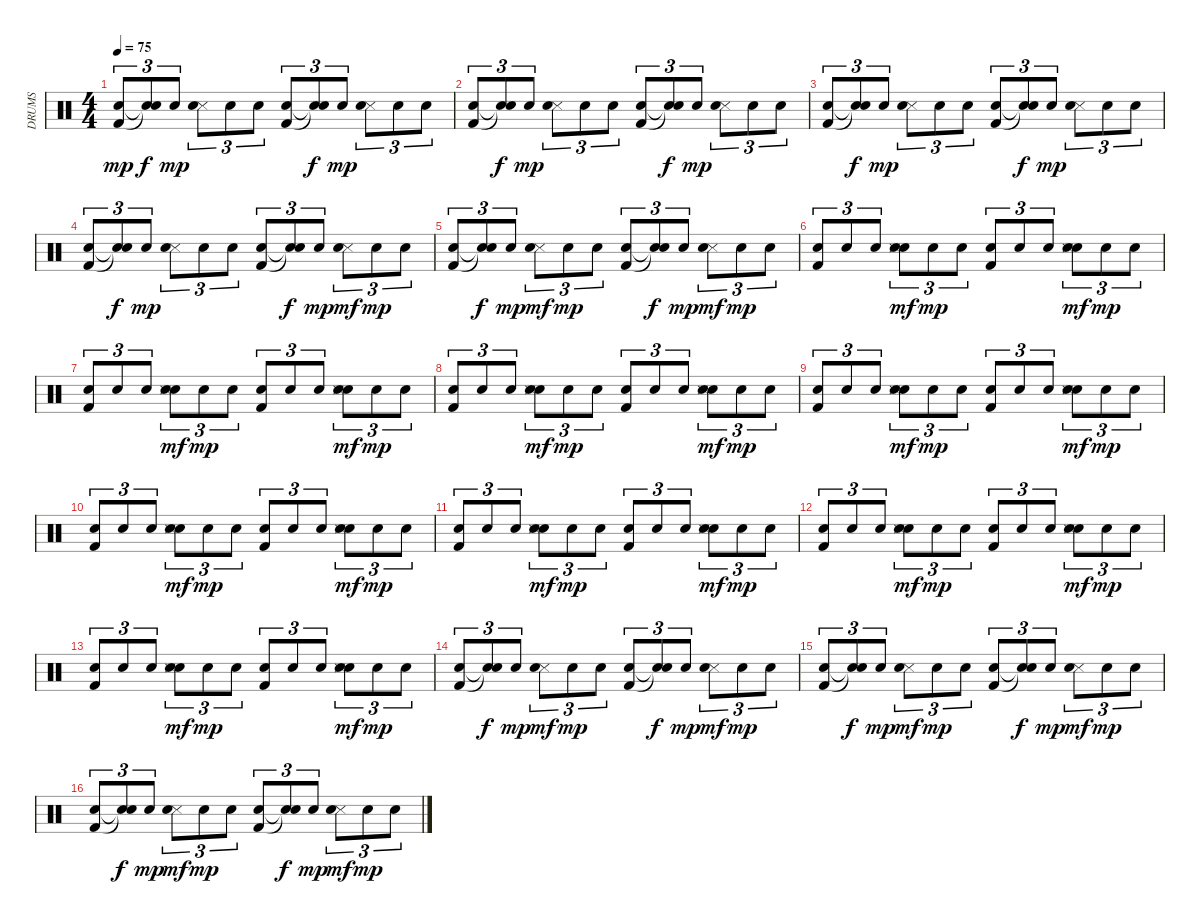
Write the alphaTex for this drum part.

\track ("DRUMS" "DRUMS") {instrument percussion}
\staff {score}
\articulation defaults
\ts (4 4)
\tempo 75
\clef neutral
\ks c
("Snare (hit) 2" "Kick (hit) 2").8{tu (3 2) dy mp} ("Snare (hit)"{t} "Snare (hit)"{t}).8{tu (3 2) dy f} "Snare (hit) 2".8{tu (3 2) dy mp} ("Snare (side stick) 3" "Hand Clap (hit)").8{tu (3 2)} "Snare (hit) 2".8{tu (3 2)} "Snare (hit) 2".8{tu (3 2)} ("Snare (hit) 2" "Kick (hit) 2").8{tu (3 2)} ("Snare (hit)"{t} "Snare (hit)"{t}).8{tu (3 2) dy f} "Snare (hit) 2".8{tu (3 2) dy mp} ("Snare (side stick) 3" "Hand Clap (hit)").8{tu (3 2)} "Snare (hit) 2".8{tu (3 2)} "Snare (hit) 2".8{tu (3 2)} |
("Snare (hit) 2" "Kick (hit) 2").8{tu (3 2)} ("Snare (hit)"{t} "Snare (hit)"{t}).8{tu (3 2) dy f} "Snare (hit) 2".8{tu (3 2) dy mp} ("Snare (side stick) 3" "Hand Clap (hit)").8{tu (3 2)} "Snare (hit) 2".8{tu (3 2)} "Snare (hit) 2".8{tu (3 2)} ("Snare (hit) 2" "Kick (hit) 2").8{tu (3 2)} ("Snare (hit)"{t} "Snare (hit)"{t}).8{tu (3 2) dy f} "Snare (hit) 2".8{tu (3 2) dy mp} ("Snare (side stick) 3" "Hand Clap (hit)").8{tu (3 2)} "Snare (hit) 2".8{tu (3 2)} "Snare (hit) 2".8{tu (3 2)} |
("Snare (hit) 2" "Kick (hit) 2").8{tu (3 2)} ("Snare (hit)"{t} "Snare (hit)"{t}).8{tu (3 2) dy f} "Snare (hit) 2".8{tu (3 2) dy mp} ("Snare (side stick) 3" "Hand Clap (hit)").8{tu (3 2)} "Snare (hit) 2".8{tu (3 2)} "Snare (hit) 2".8{tu (3 2)} ("Snare (hit) 2" "Kick (hit) 2").8{tu (3 2)} ("Snare (hit)"{t} "Snare (hit)"{t}).8{tu (3 2) dy f} "Snare (hit) 2".8{tu (3 2) dy mp} ("Snare (side stick) 3" "Hand Clap (hit)").8{tu (3 2)} "Snare (hit) 2".8{tu (3 2)} "Snare (hit) 2".8{tu (3 2)} |
("Snare (hit) 2" "Kick (hit) 2").8{tu (3 2)} ("Snare (hit)"{t} "Snare (hit)"{t}).8{tu (3 2) dy f} "Snare (hit) 2".8{tu (3 2) dy mp} ("Snare (side stick) 3" "Hand Clap (hit)").8{tu (3 2)} "Snare (hit) 2".8{tu (3 2)} "Snare (hit) 2".8{tu (3 2)} ("Snare (hit) 2" "Kick (hit) 2").8{tu (3 2)} ("Snare (hit)"{t} "Snare (hit)"{t}).8{tu (3 2) dy f} "Snare (hit) 2".8{tu (3 2) dy mp} ("Snare (side stick) 3" "Hand Clap (hit)").8{tu (3 2) dy mf} "Snare (hit) 2".8{tu (3 2) dy mp} "Snare (hit) 2".8{tu (3 2)} |
("Snare (hit) 2" "Kick (hit) 2").8{tu (3 2)} ("Snare (hit)"{t} "Snare (hit)"{t}).8{tu (3 2) dy f} "Snare (hit) 2".8{tu (3 2) dy mp} ("Snare (side stick) 3" "Hand Clap (hit)").8{tu (3 2) dy mf} "Snare (hit) 2".8{tu (3 2) dy mp} "Snare (hit) 2".8{tu (3 2)} ("Snare (hit) 2" "Kick (hit) 2").8{tu (3 2)} ("Snare (hit)"{t} "Snare (hit)"{t}).8{tu (3 2) dy f} "Snare (hit) 2".8{tu (3 2) dy mp} ("Snare (side stick) 3" "Hand Clap (hit)").8{tu (3 2) dy mf} "Snare (hit) 2".8{tu (3 2) dy mp} "Snare (hit) 2".8{tu (3 2)} |
("Snare (hit) 2" "Kick (hit) 2").8{tu (3 2)} "Snare (hit) 2".8{tu (3 2)} "Snare (hit) 2".8{tu (3 2)} ("Snare (hit) 2" "Snare (side stick) 3" "Hand Clap (hit)").8{tu (3 2) dy mf} "Snare (hit) 2".8{tu (3 2) dy mp} "Snare (hit) 2".8{tu (3 2)} ("Snare (hit) 2" "Kick (hit) 2").8{tu (3 2)} "Snare (hit) 2".8{tu (3 2)} "Snare (hit) 2".8{tu (3 2)} ("Snare (hit) 2" "Snare (side stick) 3" "Hand Clap (hit)").8{tu (3 2) dy mf} "Snare (hit) 2".8{tu (3 2) dy mp} "Snare (hit) 2".8{tu (3 2)} |
("Snare (hit) 2" "Kick (hit) 2").8{tu (3 2)} "Snare (hit) 2".8{tu (3 2)} "Snare (hit) 2".8{tu (3 2)} ("Snare (hit) 2" "Snare (side stick) 3" "Hand Clap (hit)").8{tu (3 2) dy mf} "Snare (hit) 2".8{tu (3 2) dy mp} "Snare (hit) 2".8{tu (3 2)} ("Snare (hit) 2" "Kick (hit) 2").8{tu (3 2)} "Snare (hit) 2".8{tu (3 2)} "Snare (hit) 2".8{tu (3 2)} ("Snare (hit) 2" "Snare (side stick) 3" "Hand Clap (hit)").8{tu (3 2) dy mf} "Snare (hit) 2".8{tu (3 2) dy mp} "Snare (hit) 2".8{tu (3 2)} |
("Snare (hit) 2" "Kick (hit) 2").8{tu (3 2)} "Snare (hit) 2".8{tu (3 2)} "Snare (hit) 2".8{tu (3 2)} ("Snare (hit) 2" "Snare (side stick) 3" "Hand Clap (hit)").8{tu (3 2) dy mf} "Snare (hit) 2".8{tu (3 2) dy mp} "Snare (hit) 2".8{tu (3 2)} ("Snare (hit) 2" "Kick (hit) 2").8{tu (3 2)} "Snare (hit) 2".8{tu (3 2)} "Snare (hit) 2".8{tu (3 2)} ("Snare (hit) 2" "Snare (side stick) 3" "Hand Clap (hit)").8{tu (3 2) dy mf} "Snare (hit) 2".8{tu (3 2) dy mp} "Snare (hit) 2".8{tu (3 2)} |
("Snare (hit) 2" "Kick (hit) 2").8{tu (3 2)} "Snare (hit) 2".8{tu (3 2)} "Snare (hit) 2".8{tu (3 2)} ("Snare (hit) 2" "Snare (side stick) 3" "Hand Clap (hit)").8{tu (3 2) dy mf} "Snare (hit) 2".8{tu (3 2) dy mp} "Snare (hit) 2".8{tu (3 2)} ("Snare (hit) 2" "Kick (hit) 2").8{tu (3 2)} "Snare (hit) 2".8{tu (3 2)} "Snare (hit) 2".8{tu (3 2)} ("Snare (hit) 2" "Snare (side stick) 3" "Hand Clap (hit)").8{tu (3 2) dy mf} "Snare (hit) 2".8{tu (3 2) dy mp} "Snare (hit) 2".8{tu (3 2)} |
("Snare (hit) 2" "Kick (hit) 2").8{tu (3 2)} "Snare (hit) 2".8{tu (3 2)} "Snare (hit) 2".8{tu (3 2)} ("Snare (hit) 2" "Snare (side stick) 3" "Hand Clap (hit)").8{tu (3 2) dy mf} "Snare (hit) 2".8{tu (3 2) dy mp} "Snare (hit) 2".8{tu (3 2)} ("Snare (hit) 2" "Kick (hit) 2").8{tu (3 2)} "Snare (hit) 2".8{tu (3 2)} "Snare (hit) 2".8{tu (3 2)} ("Snare (hit) 2" "Snare (side stick) 3" "Hand Clap (hit)").8{tu (3 2) dy mf} "Snare (hit) 2".8{tu (3 2) dy mp} "Snare (hit) 2".8{tu (3 2)} |
("Snare (hit) 2" "Kick (hit) 2").8{tu (3 2)} "Snare (hit) 2".8{tu (3 2)} "Snare (hit) 2".8{tu (3 2)} ("Snare (hit) 2" "Snare (side stick) 3" "Hand Clap (hit)").8{tu (3 2) dy mf} "Snare (hit) 2".8{tu (3 2) dy mp} "Snare (hit) 2".8{tu (3 2)} ("Snare (hit) 2" "Kick (hit) 2").8{tu (3 2)} "Snare (hit) 2".8{tu (3 2)} "Snare (hit) 2".8{tu (3 2)} ("Snare (hit) 2" "Snare (side stick) 3" "Hand Clap (hit)").8{tu (3 2) dy mf} "Snare (hit) 2".8{tu (3 2) dy mp} "Snare (hit) 2".8{tu (3 2)} |
("Snare (hit) 2" "Kick (hit) 2").8{tu (3 2)} "Snare (hit) 2".8{tu (3 2)} "Snare (hit) 2".8{tu (3 2)} ("Snare (hit) 2" "Snare (side stick) 3" "Hand Clap (hit)").8{tu (3 2) dy mf} "Snare (hit) 2".8{tu (3 2) dy mp} "Snare (hit) 2".8{tu (3 2)} ("Snare (hit) 2" "Kick (hit) 2").8{tu (3 2)} "Snare (hit) 2".8{tu (3 2)} "Snare (hit) 2".8{tu (3 2)} ("Snare (hit) 2" "Snare (side stick) 3" "Hand Clap (hit)").8{tu (3 2) dy mf} "Snare (hit) 2".8{tu (3 2) dy mp} "Snare (hit) 2".8{tu (3 2)} |
("Snare (hit) 2" "Kick (hit) 2").8{tu (3 2)} "Snare (hit) 2".8{tu (3 2)} "Snare (hit) 2".8{tu (3 2)} ("Snare (hit) 2" "Snare (side stick) 3" "Hand Clap (hit)").8{tu (3 2) dy mf} "Snare (hit) 2".8{tu (3 2) dy mp} "Snare (hit) 2".8{tu (3 2)} ("Snare (hit) 2" "Kick (hit) 2").8{tu (3 2)} "Snare (hit) 2".8{tu (3 2)} "Snare (hit) 2".8{tu (3 2)} ("Snare (hit) 2" "Snare (side stick) 3" "Hand Clap (hit)").8{tu (3 2) dy mf} "Snare (hit) 2".8{tu (3 2) dy mp} "Snare (hit) 2".8{tu (3 2)} |
("Snare (hit) 2" "Kick (hit) 2").8{tu (3 2)} ("Snare (hit)"{t} "Snare (hit)"{t}).8{tu (3 2) dy f} "Snare (hit) 2".8{tu (3 2) dy mp} ("Snare (side stick) 3" "Hand Clap (hit)").8{tu (3 2) dy mf} "Snare (hit) 2".8{tu (3 2) dy mp} "Snare (hit) 2".8{tu (3 2)} ("Snare (hit) 2" "Kick (hit) 2").8{tu (3 2)} ("Snare (hit)"{t} "Snare (hit)"{t}).8{tu (3 2) dy f} "Snare (hit) 2".8{tu (3 2) dy mp} ("Snare (side stick) 3" "Hand Clap (hit)").8{tu (3 2) dy mf} "Snare (hit) 2".8{tu (3 2) dy mp} "Snare (hit) 2".8{tu (3 2)} |
("Snare (hit) 2" "Kick (hit) 2").8{tu (3 2)} ("Snare (hit)"{t} "Snare (hit)"{t}).8{tu (3 2) dy f} "Snare (hit) 2".8{tu (3 2) dy mp} ("Snare (side stick) 3" "Hand Clap (hit)").8{tu (3 2) dy mf} "Snare (hit) 2".8{tu (3 2) dy mp} "Snare (hit) 2".8{tu (3 2)} ("Snare (hit) 2" "Kick (hit) 2").8{tu (3 2)} ("Snare (hit)"{t} "Snare (hit)"{t}).8{tu (3 2) dy f} "Snare (hit) 2".8{tu (3 2) dy mp} ("Snare (side stick) 3" "Hand Clap (hit)").8{tu (3 2) dy mf} "Snare (hit) 2".8{tu (3 2) dy mp} "Snare (hit) 2".8{tu (3 2)} |
("Snare (hit) 2" "Kick (hit) 2").8{tu (3 2)} ("Snare (hit)"{t} "Snare (hit)"{t}).8{tu (3 2) dy f} "Snare (hit) 2".8{tu (3 2) dy mp} ("Snare (side stick) 3" "Hand Clap (hit)").8{tu (3 2) dy mf} "Snare (hit) 2".8{tu (3 2) dy mp} "Snare (hit) 2".8{tu (3 2)} ("Snare (hit) 2" "Kick (hit) 2").8{tu (3 2)} ("Snare (hit)"{t} "Snare (hit)"{t}).8{tu (3 2) dy f} "Snare (hit) 2".8{tu (3 2) dy mp} ("Snare (side stick) 3" "Hand Clap (hit)").8{tu (3 2) dy mf} "Snare (hit) 2".8{tu (3 2) dy mp} "Snare (hit) 2".8{tu (3 2)}
